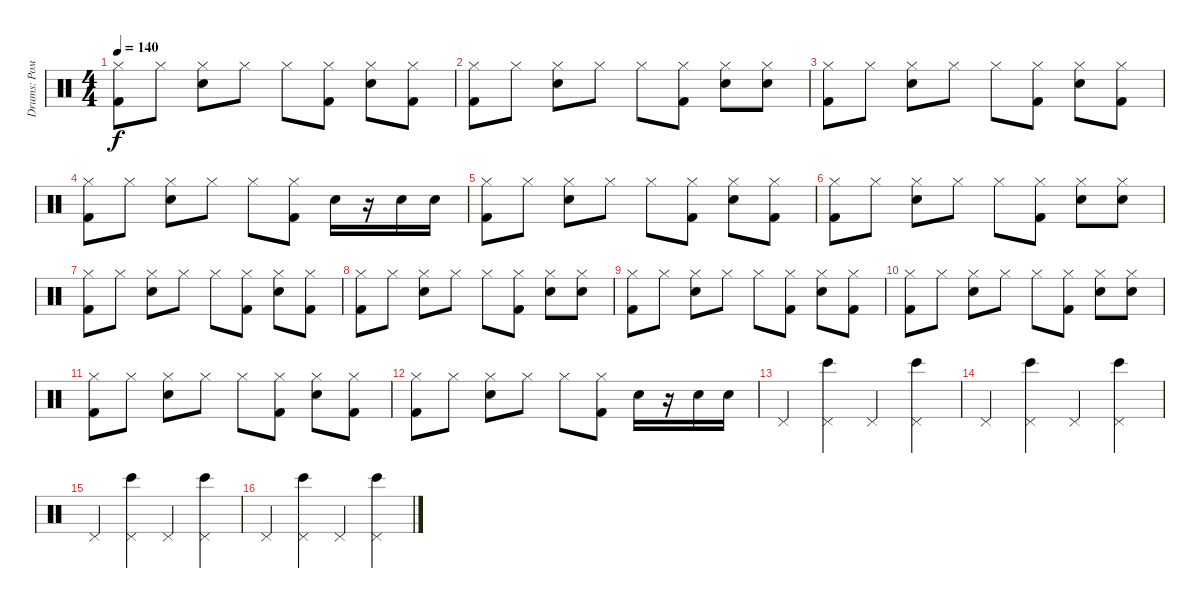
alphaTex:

\track ("Drums: Рома" "Drums: Ром") {instrument percussion}
\staff {score}
\articulation defaults
\ts (4 4)
\tempo 140
\clef neutral
\ks c
("Hi-Hat (closed)" "Kick (hit) 2").8{dy f} "Hi-Hat (closed)".8 ("Hi-Hat (closed)" "Snare (hit) 2").8 "Hi-Hat (closed)".8 "Hi-Hat (closed)".8 ("Hi-Hat (closed)" "Kick (hit) 2").8 ("Hi-Hat (closed)" "Snare (hit) 2").8 ("Hi-Hat (closed)" "Kick (hit) 2").8 |
("Hi-Hat (closed)" "Kick (hit) 2").8 "Hi-Hat (closed)".8 ("Hi-Hat (closed)" "Snare (hit) 2").8 "Hi-Hat (closed)".8 "Hi-Hat (closed)".8 ("Hi-Hat (closed)" "Kick (hit) 2").8 ("Hi-Hat (closed)" "Snare (hit) 2").8 ("Hi-Hat (closed)" "Snare (hit) 2").8 |
("Hi-Hat (closed)" "Kick (hit) 2").8 "Hi-Hat (closed)".8 ("Hi-Hat (closed)" "Snare (hit) 2").8 "Hi-Hat (closed)".8 "Hi-Hat (closed)".8 ("Hi-Hat (closed)" "Kick (hit) 2").8 ("Hi-Hat (closed)" "Snare (hit) 2").8 ("Hi-Hat (closed)" "Kick (hit) 2").8 |
("Hi-Hat (closed)" "Kick (hit) 2").8 "Hi-Hat (closed)".8 ("Hi-Hat (closed)" "Snare (hit) 2").8 "Hi-Hat (closed)".8 "Hi-Hat (closed)".8 ("Hi-Hat (closed)" "Kick (hit) 2").8 "Snare (hit) 2".16 r.16 "Snare (hit) 2".16 "Snare (hit) 2".16 |
("Hi-Hat (closed)" "Kick (hit) 2").8 "Hi-Hat (closed)".8 ("Hi-Hat (closed)" "Snare (hit) 2").8 "Hi-Hat (closed)".8 "Hi-Hat (closed)".8 ("Hi-Hat (closed)" "Kick (hit) 2").8 ("Hi-Hat (closed)" "Snare (hit) 2").8 ("Hi-Hat (closed)" "Kick (hit) 2").8 |
("Hi-Hat (closed)" "Kick (hit) 2").8 "Hi-Hat (closed)".8 ("Hi-Hat (closed)" "Snare (hit) 2").8 "Hi-Hat (closed)".8 "Hi-Hat (closed)".8 ("Hi-Hat (closed)" "Kick (hit) 2").8 ("Hi-Hat (closed)" "Snare (hit) 2").8 ("Hi-Hat (closed)" "Snare (hit) 2").8 |
("Hi-Hat (closed)" "Kick (hit) 2").8 "Hi-Hat (closed)".8 ("Hi-Hat (closed)" "Snare (hit) 2").8 "Hi-Hat (closed)".8 "Hi-Hat (closed)".8 ("Hi-Hat (closed)" "Kick (hit) 2").8 ("Hi-Hat (closed)" "Snare (hit) 2").8 ("Hi-Hat (closed)" "Kick (hit) 2").8 |
("Hi-Hat (closed)" "Kick (hit) 2").8 "Hi-Hat (closed)".8 ("Hi-Hat (closed)" "Snare (hit) 2").8 "Hi-Hat (closed)".8 "Hi-Hat (closed)".8 ("Hi-Hat (closed)" "Kick (hit) 2").8 ("Hi-Hat (closed)" "Snare (hit) 2").8 ("Hi-Hat (closed)" "Snare (hit) 2").8 |
("Hi-Hat (closed)" "Kick (hit) 2").8 "Hi-Hat (closed)".8 ("Hi-Hat (closed)" "Snare (hit) 2").8 "Hi-Hat (closed)".8 "Hi-Hat (closed)".8 ("Hi-Hat (closed)" "Kick (hit) 2").8 ("Hi-Hat (closed)" "Snare (hit) 2").8 ("Hi-Hat (closed)" "Kick (hit) 2").8 |
("Hi-Hat (closed)" "Kick (hit) 2").8 "Hi-Hat (closed)".8 ("Hi-Hat (closed)" "Snare (hit) 2").8 "Hi-Hat (closed)".8 "Hi-Hat (closed)".8 ("Hi-Hat (closed)" "Kick (hit) 2").8 ("Hi-Hat (closed)" "Snare (hit) 2").8 ("Hi-Hat (closed)" "Snare (hit) 2").8 |
("Hi-Hat (closed)" "Kick (hit) 2").8 "Hi-Hat (closed)".8 ("Hi-Hat (closed)" "Snare (hit) 2").8 "Hi-Hat (closed)".8 "Hi-Hat (closed)".8 ("Hi-Hat (closed)" "Kick (hit) 2").8 ("Hi-Hat (closed)" "Snare (hit) 2").8 ("Hi-Hat (closed)" "Kick (hit) 2").8 |
("Hi-Hat (closed)" "Kick (hit) 2").8 "Hi-Hat (closed)".8 ("Hi-Hat (closed)" "Snare (hit) 2").8 "Hi-Hat (closed)".8 "Hi-Hat (closed)".8 ("Hi-Hat (closed)" "Kick (hit) 2").8 "Snare (hit) 2".16 r.16 "Snare (hit) 2".16 "Snare (hit) 2".16 |
"Pedal Hi-Hat (hit)".4 ("Pedal Hi-Hat (hit)" "Bongo High (hit)").4 "Pedal Hi-Hat (hit)".4 ("Pedal Hi-Hat (hit)" "Bongo High (hit)").4 |
"Pedal Hi-Hat (hit)".4 ("Pedal Hi-Hat (hit)" "Bongo High (hit)").4 "Pedal Hi-Hat (hit)".4 ("Pedal Hi-Hat (hit)" "Bongo High (hit)").4 |
"Pedal Hi-Hat (hit)".4 ("Pedal Hi-Hat (hit)" "Bongo High (hit)").4 "Pedal Hi-Hat (hit)".4 ("Pedal Hi-Hat (hit)" "Bongo High (hit)").4 |
"Pedal Hi-Hat (hit)".4 ("Pedal Hi-Hat (hit)" "Bongo High (hit)").4 "Pedal Hi-Hat (hit)".4 ("Pedal Hi-Hat (hit)" "Bongo High (hit)").4
